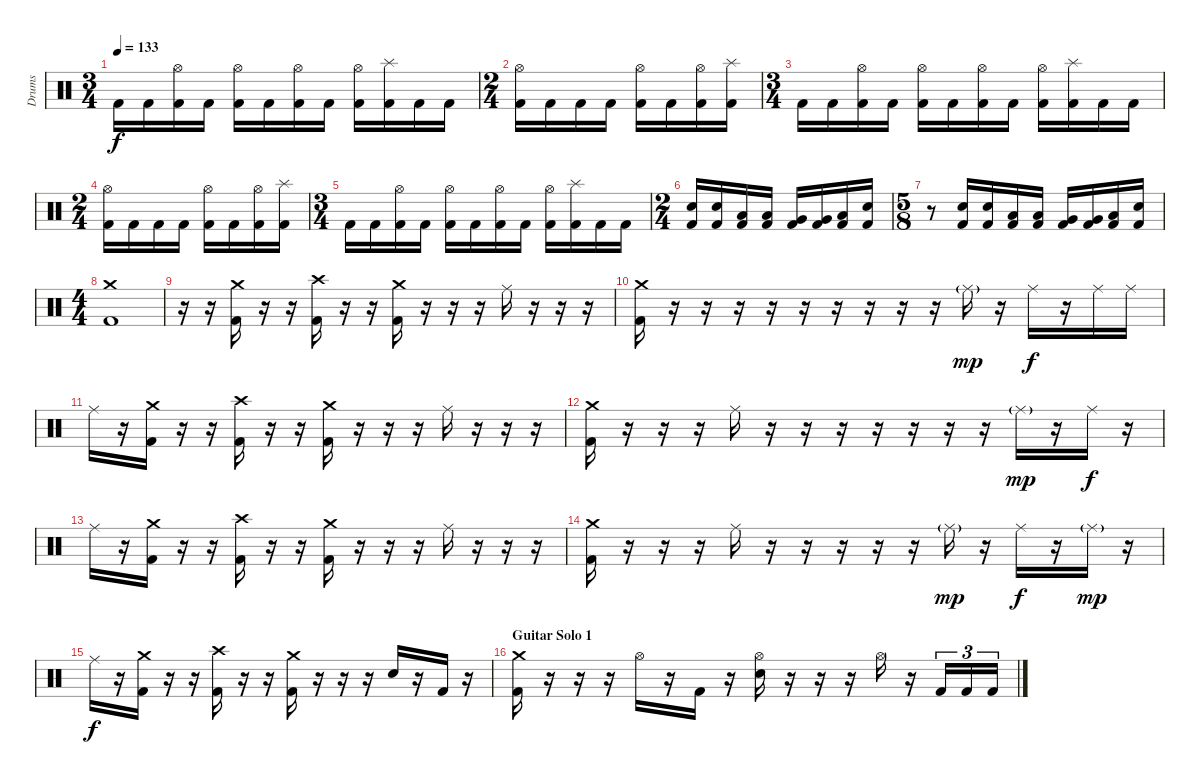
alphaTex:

\track ("Drums" "Drums") {instrument percussion}
\staff {score}
\articulation defaults
\ts (3 4)
\tempo 133
\clef neutral
\ks c "Kick (hit) 2".16{dy f} "Kick (hit) 2".16
("Hi-Hat (open)" "Kick (hit) 2").16 "Kick (hit) 2".16 ("Hi-Hat (open)" "Kick (hit) 2").16 "Kick (hit) 2".16 ("Hi-Hat (open)" "Kick (hit) 2").16 "Kick (hit) 2".16 ("Hi-Hat (open)" "Kick (hit) 2").16 ("Splash (hit)" "Kick (hit) 2").16 "Kick (hit) 2".16 "Kick (hit) 2".16 |
\ts (2 4)
("Hi-Hat (open)" "Kick (hit) 2").16 "Kick (hit) 2".16 "Kick (hit) 2".16 "Kick (hit) 2".16 ("Hi-Hat (open)" "Kick (hit) 2").16 "Kick (hit) 2".16 ("Hi-Hat (open)" "Kick (hit) 2").16 ("Splash (hit)" "Kick (hit) 2").16 |
\ts (3 4)
"Kick (hit) 2".16 "Kick (hit) 2".16 ("Hi-Hat (open)" "Kick (hit) 2").16 "Kick (hit) 2".16 ("Hi-Hat (open)" "Kick (hit) 2").16 "Kick (hit) 2".16 ("Hi-Hat (open)" "Kick (hit) 2").16 "Kick (hit) 2".16 ("Hi-Hat (open)" "Kick (hit) 2").16 ("Splash (hit)" "Kick (hit) 2").16 "Kick (hit) 2".16 "Kick (hit) 2".16 |
\ts (2 4)
("Hi-Hat (open)" "Kick (hit) 2").16 "Kick (hit) 2".16 "Kick (hit) 2".16 "Kick (hit) 2".16 ("Hi-Hat (open)" "Kick (hit) 2").16 "Kick (hit) 2".16 ("Hi-Hat (open)" "Kick (hit) 2").16 ("Splash (hit)" "Kick (hit) 2").16 |
\ts (3 4)
"Kick (hit) 2".16 "Kick (hit) 2".16 ("Hi-Hat (open)" "Kick (hit) 2").16 "Kick (hit) 2".16 ("Hi-Hat (open)" "Kick (hit) 2").16 "Kick (hit) 2".16 ("Hi-Hat (open)" "Kick (hit) 2").16 "Kick (hit) 2".16 ("Hi-Hat (open)" "Kick (hit) 2").16 ("Splash (hit)" "Kick (hit) 2").16 "Kick (hit) 2".16 "Kick (hit) 2".16 |
\ts (2 4)
\section ("" "")
("Electric Snare (hit)" "Kick (hit) 2").16 ("Electric Snare (hit)" "Kick (hit) 2").16 ("Low Tom (hit)" "Kick (hit) 2").16 ("Low Tom (hit)" "Kick (hit) 2").16 ("Very Low Tom (hit)" "Kick (hit) 2").16 ("Very Low Tom (hit)" "Kick (hit) 2").16 ("Low Floor Tom (hit)" "Kick (hit) 2").16 ("Electric Snare (hit)" "Kick (hit) 2").16 |
\ts (5 8)
r.8 ("Electric Snare (hit)" "Kick (hit) 2").16 ("Electric Snare (hit)" "Kick (hit) 2").16 ("Low Tom (hit)" "Kick (hit) 2").16 ("Low Tom (hit)" "Kick (hit) 2").16 ("Very Low Tom (hit)" "Kick (hit) 2").16 ("Very Low Tom (hit)" "Kick (hit) 2").16 ("Low Floor Tom (hit)" "Kick (hit) 2").16 ("Electric Snare (hit)" "Kick (hit) 2").16 |
\ts (4 4)
\section ("" "")
("Crash medium (hit)" "Kick (hit) 2").1 |
r.16 r.16 ("Crash medium (hit)" "Kick (hit) 2").16 r.16 r.16 ("Crash high (hit)" "Kick (hit) 2").16 r.16 r.16 ("Crash medium (hit)" "Kick (hit) 2").16 r.16 r.16 r.16 "Ride (middle)".16 r.16 r.16 r.16 |
("Crash medium (hit)" "Kick (hit) 2").16 r.16 r.16 r.16 r.16 r.16 r.16 r.16 r.16 r.16 "Ride (middle)"{g}.16{dy mp} r.16 "Ride (middle)".16{dy f} r.16 "Ride (middle)".16 "Ride (middle)".16 |
"Ride (middle)".16 r.16 ("Crash medium (hit)" "Kick (hit) 2").16 r.16 r.16 ("Crash high (hit)" "Kick (hit) 2").16 r.16 r.16 ("Crash medium (hit)" "Kick (hit) 2").16 r.16 r.16 r.16 "Ride (middle)".16 r.16 r.16 r.16 |
("Crash medium (hit)" "Kick (hit) 2").16 r.16 r.16 r.16 "Ride (middle)".16 r.16 r.16 r.16 r.16 r.16 r.16 r.16 "Ride (middle)"{g}.16{dy mp} r.16 "Ride (middle)".16{dy f} r.16 |
"Ride (middle)".16 r.16 ("Crash medium (hit)" "Kick (hit) 2").16 r.16 r.16 ("Crash high (hit)" "Kick (hit) 2").16 r.16 r.16 ("Crash medium (hit)" "Kick (hit) 2").16 r.16 r.16 r.16 "Ride (middle)".16 r.16 r.16 r.16 |
("Crash medium (hit)" "Kick (hit) 2").16 r.16 r.16 r.16 "Ride (middle)".16 r.16 r.16 r.16 r.16 r.16 "Ride (middle)"{g}.16{dy mp} r.16 "Ride (middle)".16{dy f} r.16 "Ride (middle)"{g}.16{dy mp} r.16 |
"Ride (middle)".16{dy f} r.16 ("Crash medium (hit)" "Kick (hit) 2").16 r.16 r.16 ("Crash high (hit)" "Kick (hit) 2").16 r.16 r.16 ("Crash medium (hit)" "Kick (hit) 2").16 r.16 r.16 r.16 "Electric Snare (hit)".16 r.16 "Kick (hit) 2".16 r.16 |
\section ("" "Guitar Solo 1")
("Crash medium (hit)" "Kick (hit) 2").16 r.16 r.16 r.16 "Hi-Hat (open)".16 r.16 "Kick (hit) 2".16 r.16 ("Hi-Hat (open)" "Electric Snare (hit)").16 r.16 r.16 r.16 "Hi-Hat (open)".16 r.16 "Kick (hit) 2".16{tu (3 2)} "Kick (hit) 2".16{tu (3 2)} "Kick (hit) 2".16{tu (3 2)}
